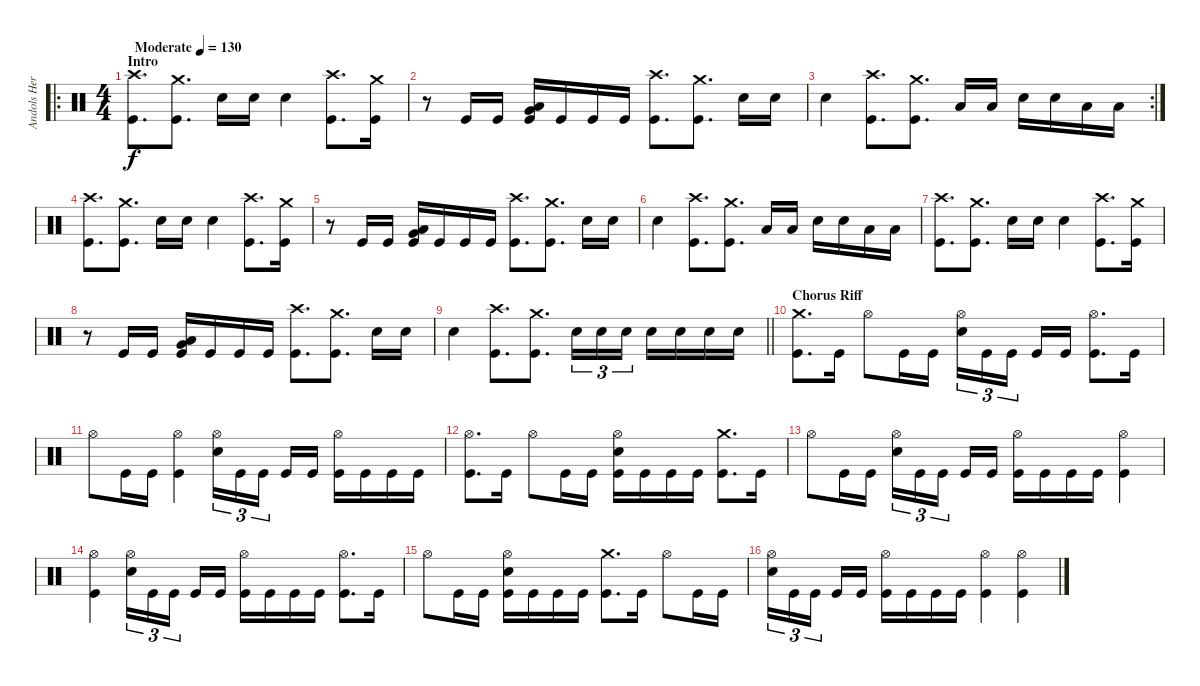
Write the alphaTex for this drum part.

\track ("Andols Herrick" "Andols Her") {instrument percussion}
\staff {score}
\articulation defaults
\ro
\ts (4 4)
\section ("" "Intro")
\tempo (130 "Moderate")
\clef neutral
\ks c
("Crash high (hit)" "Kick (hit)").8{d dy f} ("Crash medium (hit)" "Kick (hit)").8{d} "Electric Snare (hit)".16 "Electric Snare (hit)".16 "Electric Snare (hit)".4 ("Crash high (hit)" "Kick (hit)").8{d} ("Crash medium (hit)" "Kick (hit)").16 |
r.8 "Kick (hit)".16 "Kick (hit)".16 ("Very Low Tom (hit)" "Low Floor Tom (hit)" "Kick (hit)").16 "Kick (hit)".16 "Kick (hit)".16 "Kick (hit)".16 ("Crash high (hit)" "Kick (hit)").8{d} ("Crash medium (hit)" "Kick (hit)").8{d} "Electric Snare (hit)".16 "Electric Snare (hit)".16 |
\rc 2 "Electric Snare (hit)".4
("Crash high (hit)" "Kick (hit)").8{d} ("Crash medium (hit)" "Kick (hit)").8{d} "Low Tom (hit)".16 "Low Tom (hit)".16 "Electric Snare (hit)".16 "Electric Snare (hit)".16 "Low Tom (hit)".16 "Low Tom (hit)".16 |
("Crash high (hit)" "Kick (hit)").8{d} ("Crash medium (hit)" "Kick (hit)").8{d} "Electric Snare (hit)".16 "Electric Snare (hit)".16 "Electric Snare (hit)".4 ("Crash high (hit)" "Kick (hit)").8{d} ("Crash medium (hit)" "Kick (hit)").16 |
r.8 "Kick (hit)".16 "Kick (hit)".16 ("Very Low Tom (hit)" "Low Floor Tom (hit)" "Kick (hit)").16 "Kick (hit)".16 "Kick (hit)".16 "Kick (hit)".16 ("Crash high (hit)" "Kick (hit)").8{d} ("Crash medium (hit)" "Kick (hit)").8{d} "Electric Snare (hit)".16 "Electric Snare (hit)".16 |
"Electric Snare (hit)".4 ("Crash high (hit)" "Kick (hit)").8{d} ("Crash medium (hit)" "Kick (hit)").8{d} "Low Tom (hit)".16 "Low Tom (hit)".16 "Electric Snare (hit)".16 "Electric Snare (hit)".16 "Low Tom (hit)".16 "Low Tom (hit)".16 |
("Crash high (hit)" "Kick (hit)").8{d} ("Crash medium (hit)" "Kick (hit)").8{d} "Electric Snare (hit)".16 "Electric Snare (hit)".16 "Electric Snare (hit)".4 ("Crash high (hit)" "Kick (hit)").8{d} ("Crash medium (hit)" "Kick (hit)").16 |
r.8 "Kick (hit)".16 "Kick (hit)".16 ("Very Low Tom (hit)" "Low Floor Tom (hit)" "Kick (hit)").16 "Kick (hit)".16 "Kick (hit)".16 "Kick (hit)".16 ("Crash high (hit)" "Kick (hit)").8{d} ("Crash medium (hit)" "Kick (hit)").8{d} "Electric Snare (hit)".16 "Electric Snare (hit)".16 |
\barLineRight lightlight "Electric Snare (hit)".4
("Crash high (hit)" "Kick (hit)").8{d} ("Crash medium (hit)" "Kick (hit)").8{d} "Electric Snare (hit)".16{tu (3 2)} "Electric Snare (hit)".16{tu (3 2)} "Electric Snare (hit)".16{tu (3 2)} "Electric Snare (hit)".16 "Electric Snare (hit)".16 "Electric Snare (hit)".16 "Electric Snare (hit)".16 |
\section ("" "Chorus Riff")
("Crash medium (hit)" "Kick (hit)").8{d} "Kick (hit)".16 "Hi-Hat (open)".8 "Kick (hit)".16 "Kick (hit)".16 ("Hi-Hat (open)" "Electric Snare (hit)").16{tu (3 2)} "Kick (hit)".16{tu (3 2)} "Kick (hit)".16{tu (3 2) beam splitsecondary} "Kick (hit)".16 "Kick (hit)".16 ("Hi-Hat (open)" "Kick (hit)").8{d} "Kick (hit)".16 |
"Hi-Hat (open)".8 "Kick (hit)".16 "Kick (hit)".16 ("Hi-Hat (open)" "Kick (hit)").4 ("Hi-Hat (open)" "Electric Snare (hit)").16{tu (3 2)} "Kick (hit)".16{tu (3 2)} "Kick (hit)".16{tu (3 2) beam splitsecondary} "Kick (hit)".16 "Kick (hit)".16 ("Hi-Hat (open)" "Kick (hit)").16 "Kick (hit)".16 "Kick (hit)".16 "Kick (hit)".16 |
("Hi-Hat (open)" "Kick (hit)").8{d} "Kick (hit)".16 "Hi-Hat (open)".8 "Kick (hit)".16 "Kick (hit)".16 ("Hi-Hat (open)" "Electric Snare (hit)" "Kick (hit)").16 "Kick (hit)".16 "Kick (hit)".16 "Kick (hit)".16 ("Crash medium (hit)" "Kick (hit)").8{d} "Kick (hit)".16 |
"Hi-Hat (open)".8 "Kick (hit)".16 "Kick (hit)".16 ("Hi-Hat (open)" "Electric Snare (hit)").16{tu (3 2)} "Kick (hit)".16{tu (3 2)} "Kick (hit)".16{tu (3 2) beam splitsecondary} "Kick (hit)".16 "Kick (hit)".16 ("Hi-Hat (open)" "Kick (hit)").16 "Kick (hit)".16 "Kick (hit)".16 "Kick (hit)".16 ("Hi-Hat (open)" "Kick (hit)").4 |
("Hi-Hat (open)" "Kick (hit)").4 ("Hi-Hat (open)" "Electric Snare (hit)").16{tu (3 2)} "Kick (hit)".16{tu (3 2)} "Kick (hit)".16{tu (3 2) beam splitsecondary} "Kick (hit)".16 "Kick (hit)".16 ("Hi-Hat (open)" "Kick (hit)").16 "Kick (hit)".16 "Kick (hit)".16 "Kick (hit)".16 ("Hi-Hat (open)" "Kick (hit)").8{d} "Kick (hit)".16 |
"Hi-Hat (open)".8 "Kick (hit)".16 "Kick (hit)".16 ("Hi-Hat (open)" "Electric Snare (hit)" "Kick (hit)").16 "Kick (hit)".16 "Kick (hit)".16 "Kick (hit)".16 ("Crash medium (hit)" "Kick (hit)").8{d} "Kick (hit)".16 "Hi-Hat (open)".8 "Kick (hit)".16 "Kick (hit)".16 |
("Hi-Hat (open)" "Electric Snare (hit)").16{tu (3 2)} "Kick (hit)".16{tu (3 2)} "Kick (hit)".16{tu (3 2) beam splitsecondary} "Kick (hit)".16 "Kick (hit)".16 ("Hi-Hat (open)" "Kick (hit)").16 "Kick (hit)".16 "Kick (hit)".16 "Kick (hit)".16 ("Hi-Hat (open)" "Kick (hit)").4 ("Hi-Hat (open)" "Kick (hit)").4
